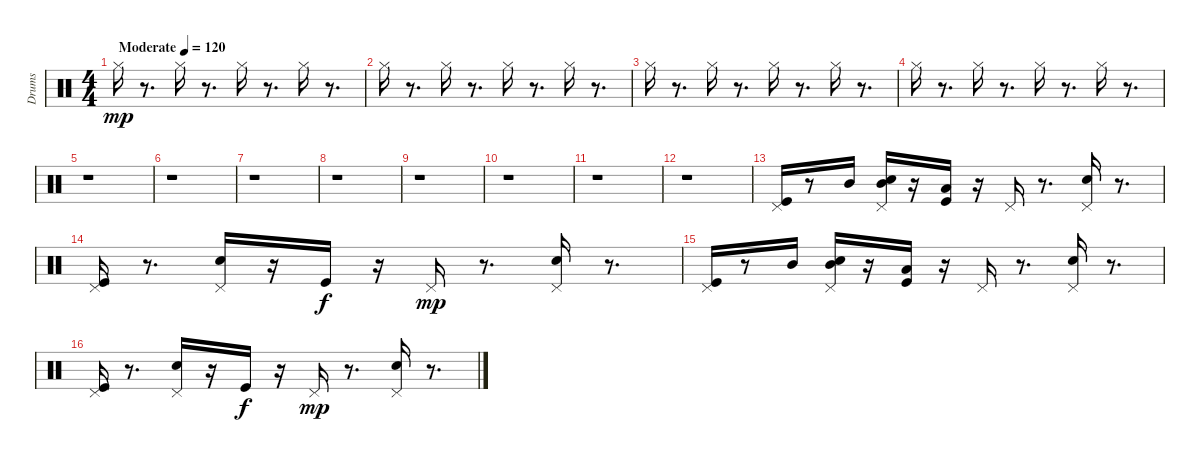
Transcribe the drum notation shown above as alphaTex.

\track ("Drums" "Drums") {instrument percussion}
\staff {score}
\articulation defaults
\ts (4 4)
\tempo (120 "Moderate")
\clef neutral
\ks c "Hi-Hat (closed)".16{dy mp}
r.8{d} "Hi-Hat (closed)".16 r.8{d} "Hi-Hat (closed)".16 r.8{d} "Hi-Hat (closed)".16 r.8{d} |
"Hi-Hat (closed)".16 r.8{d} "Hi-Hat (closed)".16 r.8{d} "Hi-Hat (closed)".16 r.8{d} "Hi-Hat (closed)".16 r.8{d} |
"Hi-Hat (closed)".16 r.8{d} "Hi-Hat (closed)".16 r.8{d} "Hi-Hat (closed)".16 r.8{d} "Hi-Hat (closed)".16 r.8{d} |
"Hi-Hat (closed)".16 r.8{d} "Hi-Hat (closed)".16 r.8{d} "Hi-Hat (closed)".16 r.8{d} "Hi-Hat (closed)".16 r.8{d} |
r.1 |
r.1 |
r.1 |
r.1 |
r.1 |
r.1 |
r.1 |
r.1 |
("Pedal Hi-Hat (hit)" "Kick (hit)").16 r.8 "Mid Tom (hit)".16 ("Pedal Hi-Hat (hit)" "Mid Tom (hit)" "Hand Clap (hit)").16 r.16 ("Kick (hit)" "Low Floor Tom (hit)").16 r.16 "Pedal Hi-Hat (hit)".16 r.8{d} ("Pedal Hi-Hat (hit)" "Hand Clap (hit)").16 r.8{d} |
("Pedal Hi-Hat (hit)" "Kick (hit)").16 r.8{d} ("Pedal Hi-Hat (hit)" "Hand Clap (hit)").16 r.16 "Kick (hit)".16{dy f} r.16 "Pedal Hi-Hat (hit)".16{dy mp} r.8{d} ("Pedal Hi-Hat (hit)" "Hand Clap (hit)").16 r.8{d} |
("Pedal Hi-Hat (hit)" "Kick (hit)").16 r.8 "Mid Tom (hit)".16 ("Pedal Hi-Hat (hit)" "Hand Clap (hit)" "Mid Tom (hit)").16 r.16 ("Kick (hit)" "Low Floor Tom (hit)").16 r.16 "Pedal Hi-Hat (hit)".16 r.8{d} ("Pedal Hi-Hat (hit)" "Hand Clap (hit)").16 r.8{d} |
("Pedal Hi-Hat (hit)" "Kick (hit)").16 r.8{d} ("Pedal Hi-Hat (hit)" "Hand Clap (hit)").16 r.16 "Kick (hit)".16{dy f} r.16 "Pedal Hi-Hat (hit)".16{dy mp} r.8{d} ("Pedal Hi-Hat (hit)" "Hand Clap (hit)").16 r.8{d}
